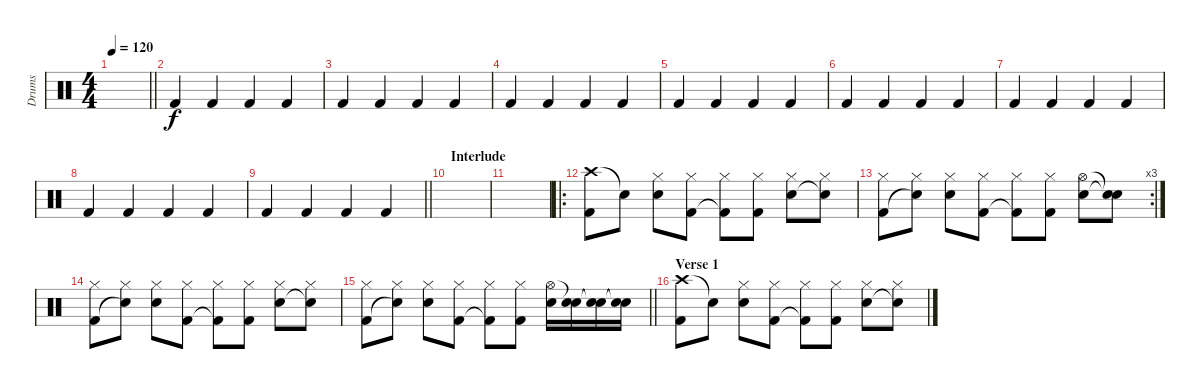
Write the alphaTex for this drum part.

\track ("Drums" "Drums") {instrument percussion}
\staff {score}
\articulation defaults
\ts (4 4)
\tempo 120
\clef neutral
\barLineRight lightlight
\ks c
|
\section ("" "")
"Kick (hit) 2".4 "Kick (hit) 2".4 "Kick (hit) 2".4 "Kick (hit) 2".4 |
"Kick (hit) 2".4 "Kick (hit) 2".4 "Kick (hit) 2".4 "Kick (hit) 2".4 |
"Kick (hit) 2".4 "Kick (hit) 2".4 "Kick (hit) 2".4 "Kick (hit) 2".4 |
"Kick (hit) 2".4 "Kick (hit) 2".4 "Kick (hit) 2".4 "Kick (hit) 2".4 |
"Kick (hit) 2".4 "Kick (hit) 2".4 "Kick (hit) 2".4 "Kick (hit) 2".4 |
"Kick (hit) 2".4 "Kick (hit) 2".4 "Kick (hit) 2".4 "Kick (hit) 2".4 |
"Kick (hit) 2".4 "Kick (hit) 2".4 "Kick (hit) 2".4 "Kick (hit) 2".4 |
\barLineRight lightlight "Kick (hit) 2".4 "Kick (hit) 2".4 "Kick (hit) 2".4 "Kick (hit) 2".4
|
\section ("" "Interlude")
|
|
\ro
("Crash high (hit)" "Kick (hit) 2").8 "Snare (hit)"{t}.8 ("Hi-Hat (closed)" "Snare (hit) 2").8 ("Hi-Hat (closed)" "Kick (hit) 2").8 ("Hi-Hat (closed)" "Kick (hit) 2"{t}).8 ("Hi-Hat (closed)" "Kick (hit) 2").8 ("Hi-Hat (closed)" "Snare (hit) 2").8 ("Hi-Hat (closed)" "Snare (hit)"{t}).8 |
\rc 3
("Hi-Hat (closed)" "Kick (hit) 2").8 ("Hi-Hat (closed)" "Snare (hit)"{t}).8 ("Hi-Hat (closed)" "Snare (hit) 2").8 ("Hi-Hat (closed)" "Kick (hit) 2").8 ("Hi-Hat (closed)" "Kick (hit) 2"{t}).8 ("Hi-Hat (closed)" "Kick (hit) 2").8 ("Hi-Hat (open)" "Snare (hit) 2").8 ("Snare (hit)"{t} "Snare (hit)"{t}).8 |
("Hi-Hat (closed)" "Kick (hit) 2").8 ("Hi-Hat (closed)" "Snare (hit)"{t}).8 ("Hi-Hat (closed)" "Snare (hit) 2").8 ("Hi-Hat (closed)" "Kick (hit) 2").8 ("Hi-Hat (closed)" "Kick (hit) 2"{t}).8 ("Hi-Hat (closed)" "Kick (hit) 2").8 ("Hi-Hat (closed)" "Snare (hit) 2").8 ("Hi-Hat (closed)" "Snare (hit)"{t}).8 |
\barLineRight lightlight
("Hi-Hat (closed)" "Kick (hit) 2").8 ("Hi-Hat (closed)" "Snare (hit)"{t}).8 ("Hi-Hat (closed)" "Snare (hit) 2").8 ("Hi-Hat (closed)" "Kick (hit) 2").8 ("Hi-Hat (closed)" "Kick (hit) 2"{t}).8 ("Hi-Hat (closed)" "Kick (hit) 2").8 ("Hi-Hat (open)" "Snare (hit) 2").16 ("Snare (hit)"{t} "Snare (hit) 2").16 ("Snare (hit)"{t} "Snare (hit) 2"{t}).16 ("Snare (hit)"{t} "Snare (hit) 2"{t}).16 |
\section ("" "Verse 1")
("Crash high (hit)" "Kick (hit) 2").8 "Snare (hit)"{t}.8 ("Hi-Hat (closed)" "Snare (hit) 2").8 ("Hi-Hat (closed)" "Kick (hit) 2").8 ("Hi-Hat (closed)" "Kick (hit) 2"{t}).8 ("Hi-Hat (closed)" "Kick (hit) 2").8 ("Hi-Hat (closed)" "Snare (hit) 2").8 ("Hi-Hat (closed)" "Snare (hit)"{t}).8
